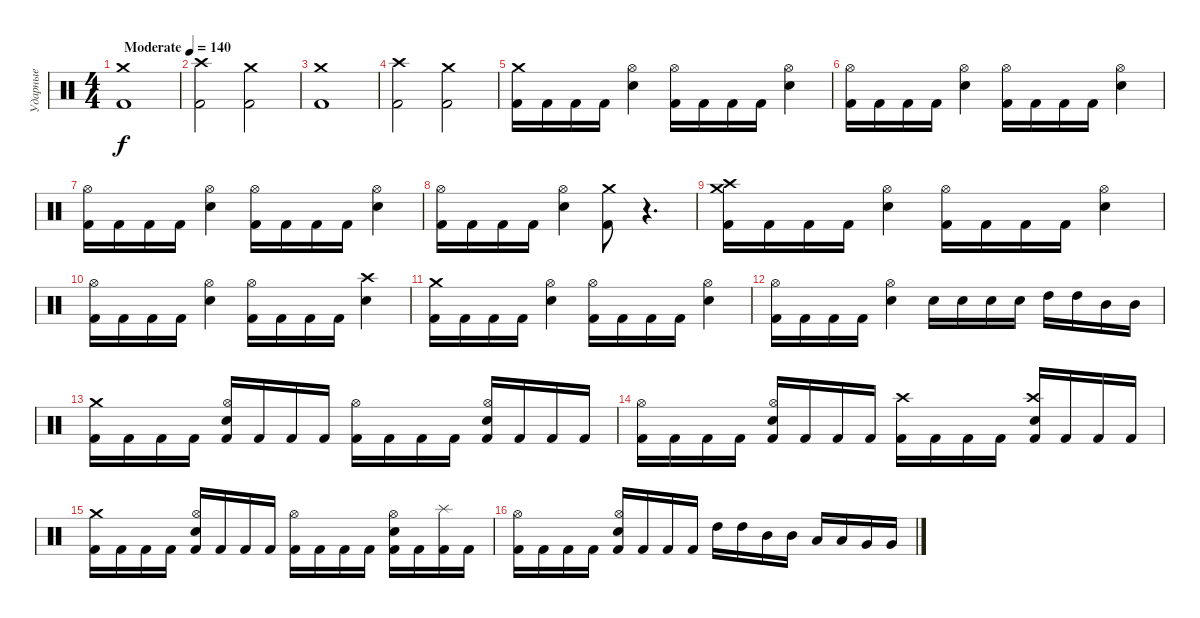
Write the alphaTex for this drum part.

\track ("Ударные" "Ударные") {instrument percussion}
\staff {score}
\articulation defaults
\ts (4 4)
\tempo (140 "Moderate")
\clef neutral
\ks c
("Crash medium (hit)" "Kick (hit) 2").1{dy f} |
("Crash high (hit)" "Kick (hit) 2").2 ("Crash medium (hit)" "Kick (hit) 2").2 |
("Crash medium (hit)" "Kick (hit) 2").1 |
("Crash high (hit)" "Kick (hit) 2").2 ("Crash medium (hit)" "Kick (hit) 2").2 |
("Crash medium (hit)" "Kick (hit) 2").16 "Kick (hit) 2".16 "Kick (hit) 2".16 "Kick (hit) 2".16 ("Hi-Hat (open)" "Electric Snare (hit)").4 ("Hi-Hat (open)" "Kick (hit) 2").16 "Kick (hit) 2".16 "Kick (hit) 2".16 "Kick (hit) 2".16 ("Hi-Hat (open)" "Electric Snare (hit)").4 |
("Hi-Hat (open)" "Kick (hit) 2").16 "Kick (hit) 2".16 "Kick (hit) 2".16 "Kick (hit) 2".16 ("Hi-Hat (open)" "Electric Snare (hit)").4 ("Hi-Hat (open)" "Kick (hit) 2").16 "Kick (hit) 2".16 "Kick (hit) 2".16 "Kick (hit) 2".16 ("Hi-Hat (open)" "Electric Snare (hit)").4 |
("Hi-Hat (open)" "Kick (hit) 2").16 "Kick (hit) 2".16 "Kick (hit) 2".16 "Kick (hit) 2".16 ("Hi-Hat (open)" "Electric Snare (hit)").4 ("Hi-Hat (open)" "Kick (hit) 2").16 "Kick (hit) 2".16 "Kick (hit) 2".16 "Kick (hit) 2".16 ("Hi-Hat (open)" "Electric Snare (hit)").4 |
("Hi-Hat (open)" "Kick (hit) 2").16 "Kick (hit) 2".16 "Kick (hit) 2".16 "Kick (hit) 2".16 ("Hi-Hat (open)" "Electric Snare (hit)").4 ("Crash medium (hit)" "Kick (hit) 2").8 r.4{d} |
("Crash medium (hit)" "Crash high (hit)" "Kick (hit) 2").16 "Kick (hit) 2".16 "Kick (hit) 2".16 "Kick (hit) 2".16 ("Hi-Hat (open)" "Electric Snare (hit)").4 ("Hi-Hat (open)" "Kick (hit) 2").16 "Kick (hit) 2".16 "Kick (hit) 2".16 "Kick (hit) 2".16 ("Hi-Hat (open)" "Electric Snare (hit)").4 |
("Hi-Hat (open)" "Kick (hit) 2").16 "Kick (hit) 2".16 "Kick (hit) 2".16 "Kick (hit) 2".16 ("Hi-Hat (open)" "Electric Snare (hit)").4 ("Hi-Hat (open)" "Kick (hit) 2").16 "Kick (hit) 2".16 "Kick (hit) 2".16 "Kick (hit) 2".16 ("Crash high (hit)" "Electric Snare (hit)").4 |
("Crash medium (hit)" "Kick (hit) 2").16 "Kick (hit) 2".16 "Kick (hit) 2".16 "Kick (hit) 2".16 ("Hi-Hat (open)" "Electric Snare (hit)").4 ("Hi-Hat (open)" "Kick (hit) 2").16 "Kick (hit) 2".16 "Kick (hit) 2".16 "Kick (hit) 2".16 ("Hi-Hat (open)" "Electric Snare (hit)").4 |
("Hi-Hat (open)" "Kick (hit) 2").16 "Kick (hit) 2".16 "Kick (hit) 2".16 "Kick (hit) 2".16 ("Hi-Hat (open)" "Electric Snare (hit)").4 "Electric Snare (hit)".16 "Electric Snare (hit)".16 "Electric Snare (hit)".16 "Electric Snare (hit)".16 "High Tom (hit)".16 "High Tom (hit)".16 "Mid Tom (hit)".16 "Mid Tom (hit)".16 |
("Crash medium (hit)" "Kick (hit) 2").16 "Kick (hit) 2".16 "Kick (hit) 2".16 "Kick (hit) 2".16 ("Hi-Hat (open)" "Electric Snare (hit)" "Kick (hit) 2").16 "Kick (hit) 2".16 "Kick (hit) 2".16 "Kick (hit) 2".16 ("Hi-Hat (open)" "Kick (hit) 2").16 "Kick (hit) 2".16 "Kick (hit) 2".16 "Kick (hit) 2".16 ("Hi-Hat (open)" "Electric Snare (hit)" "Kick (hit) 2").16 "Kick (hit) 2".16 "Kick (hit) 2".16 "Kick (hit) 2".16 |
("Hi-Hat (open)" "Kick (hit) 2").16 "Kick (hit) 2".16 "Kick (hit) 2".16 "Kick (hit) 2".16 ("Hi-Hat (open)" "Electric Snare (hit)" "Kick (hit) 2").16 "Kick (hit) 2".16 "Kick (hit) 2".16 "Kick (hit) 2".16 ("Crash high (hit)" "Kick (hit) 2").16 "Kick (hit) 2".16 "Kick (hit) 2".16 "Kick (hit) 2".16 ("Crash high (hit)" "Electric Snare (hit)" "Kick (hit) 2").16 "Kick (hit) 2".16 "Kick (hit) 2".16 "Kick (hit) 2".16 |
("Crash medium (hit)" "Kick (hit) 2").16 "Kick (hit) 2".16 "Kick (hit) 2".16 "Kick (hit) 2".16 ("Hi-Hat (open)" "Electric Snare (hit)" "Kick (hit) 2").16 "Kick (hit) 2".16 "Kick (hit) 2".16 "Kick (hit) 2".16 ("Hi-Hat (open)" "Kick (hit) 2").16 "Kick (hit) 2".16 "Kick (hit) 2".16 "Kick (hit) 2".16 ("Hi-Hat (open)" "Electric Snare (hit)" "Kick (hit) 2").16 "Kick (hit) 2".16 ("Splash (hit)" "Kick (hit) 2").16 "Kick (hit) 2".16 |
("Hi-Hat (open)" "Kick (hit) 2").16 "Kick (hit) 2".16 "Kick (hit) 2".16 "Kick (hit) 2".16 ("Hi-Hat (open)" "Electric Snare (hit)" "Kick (hit) 2").16 "Kick (hit) 2".16 "Kick (hit) 2".16 "Kick (hit) 2".16 "High Tom (hit)".16 "High Tom (hit)".16 "Mid Tom (hit)".16 "Mid Tom (hit)".16 "Low Tom (hit)".16 "Low Tom (hit)".16 "Very Low Tom (hit)".16 "Very Low Tom (hit)".16
